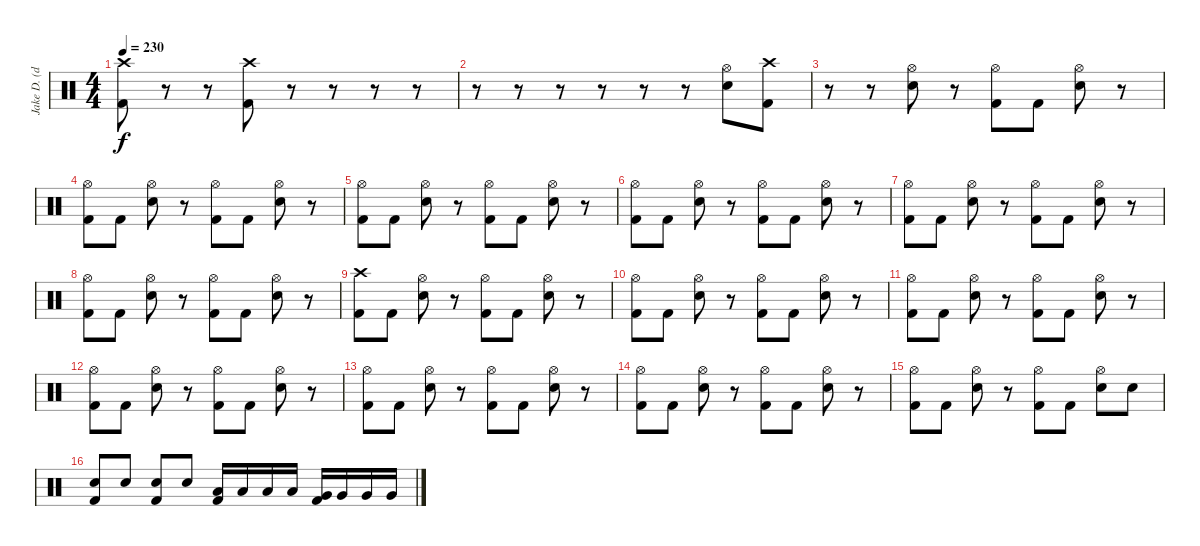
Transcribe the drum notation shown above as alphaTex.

\track ("Jake D. (drums)" "Jake D. (d") {instrument percussion}
\staff {score}
\articulation defaults
\ts (4 4)
\tempo 230
\clef neutral
\ks c
("Crash high (hit)" "Kick (hit) 2").8{dy f} r.8 r.8 ("Crash high (hit)" "Kick (hit) 2").8 r.8 r.8 r.8 r.8 |
r.8 r.8 r.8 r.8 r.8 r.8 ("Hi-Hat (open)" "Electric Snare (hit)").8 ("Crash high (hit)" "Kick (hit) 2").8 |
r.8 r.8 ("Hi-Hat (open)" "Electric Snare (hit)").8 r.8 ("Hi-Hat (open)" "Kick (hit) 2").8 "Kick (hit) 2".8 ("Hi-Hat (open)" "Electric Snare (hit)").8 r.8 |
("Hi-Hat (open)" "Kick (hit) 2").8 "Kick (hit) 2".8 ("Hi-Hat (open)" "Electric Snare (hit)").8 r.8 ("Hi-Hat (open)" "Kick (hit) 2").8 "Kick (hit) 2".8 ("Hi-Hat (open)" "Electric Snare (hit)").8 r.8 |
("Hi-Hat (open)" "Kick (hit) 2").8 "Kick (hit) 2".8 ("Hi-Hat (open)" "Electric Snare (hit)").8 r.8 ("Hi-Hat (open)" "Kick (hit) 2").8 "Kick (hit) 2".8 ("Hi-Hat (open)" "Electric Snare (hit)").8 r.8 |
("Hi-Hat (open)" "Kick (hit) 2").8 "Kick (hit) 2".8 ("Hi-Hat (open)" "Electric Snare (hit)").8 r.8 ("Hi-Hat (open)" "Kick (hit) 2").8 "Kick (hit) 2".8 ("Hi-Hat (open)" "Electric Snare (hit)").8 r.8 |
("Hi-Hat (open)" "Kick (hit) 2").8 "Kick (hit) 2".8 ("Hi-Hat (open)" "Electric Snare (hit)").8 r.8 ("Hi-Hat (open)" "Kick (hit) 2").8 "Kick (hit) 2".8 ("Hi-Hat (open)" "Electric Snare (hit)").8 r.8 |
("Hi-Hat (open)" "Kick (hit) 2").8 "Kick (hit) 2".8 ("Hi-Hat (open)" "Electric Snare (hit)").8 r.8 ("Hi-Hat (open)" "Kick (hit) 2").8 "Kick (hit) 2".8 ("Hi-Hat (open)" "Electric Snare (hit)").8 r.8 |
("Crash high (hit)" "Kick (hit) 2").8 "Kick (hit) 2".8 ("Hi-Hat (open)" "Electric Snare (hit)").8 r.8 ("Hi-Hat (open)" "Kick (hit) 2").8 "Kick (hit) 2".8 ("Hi-Hat (open)" "Electric Snare (hit)").8 r.8 |
("Hi-Hat (open)" "Kick (hit) 2").8 "Kick (hit) 2".8 ("Hi-Hat (open)" "Electric Snare (hit)").8 r.8 ("Hi-Hat (open)" "Kick (hit) 2").8 "Kick (hit) 2".8 ("Hi-Hat (open)" "Electric Snare (hit)").8 r.8 |
("Hi-Hat (open)" "Kick (hit) 2").8 "Kick (hit) 2".8 ("Hi-Hat (open)" "Electric Snare (hit)").8 r.8 ("Hi-Hat (open)" "Kick (hit) 2").8 "Kick (hit) 2".8 ("Hi-Hat (open)" "Electric Snare (hit)").8 r.8 |
("Hi-Hat (open)" "Kick (hit) 2").8 "Kick (hit) 2".8 ("Hi-Hat (open)" "Electric Snare (hit)").8 r.8 ("Hi-Hat (open)" "Kick (hit) 2").8 "Kick (hit) 2".8 ("Hi-Hat (open)" "Electric Snare (hit)").8 r.8 |
("Hi-Hat (open)" "Kick (hit) 2").8 "Kick (hit) 2".8 ("Hi-Hat (open)" "Electric Snare (hit)").8 r.8 ("Hi-Hat (open)" "Kick (hit) 2").8 "Kick (hit) 2".8 ("Hi-Hat (open)" "Electric Snare (hit)").8 r.8 |
("Hi-Hat (open)" "Kick (hit) 2").8 "Kick (hit) 2".8 ("Hi-Hat (open)" "Electric Snare (hit)").8 r.8 ("Hi-Hat (open)" "Kick (hit) 2").8 "Kick (hit) 2".8 ("Hi-Hat (open)" "Electric Snare (hit)").8 r.8 |
("Hi-Hat (open)" "Kick (hit) 2").8 "Kick (hit) 2".8 ("Hi-Hat (open)" "Electric Snare (hit)").8 r.8 ("Hi-Hat (open)" "Kick (hit) 2").8 "Kick (hit) 2".8 ("Hi-Hat (open)" "Electric Snare (hit)").8 "Electric Snare (hit)".8 |
("Electric Snare (hit)" "Kick (hit) 2").8 "Electric Snare (hit)".8 ("Electric Snare (hit)" "Kick (hit) 2").8 "Electric Snare (hit)".8 ("Low Tom (hit)" "Kick (hit) 2").16 "Low Tom (hit)".16 "Low Tom (hit)".16 "Low Tom (hit)".16 ("Very Low Tom (hit)" "Kick (hit) 2").16 "Very Low Tom (hit)".16 "Very Low Tom (hit)".16 "Very Low Tom (hit)".16
